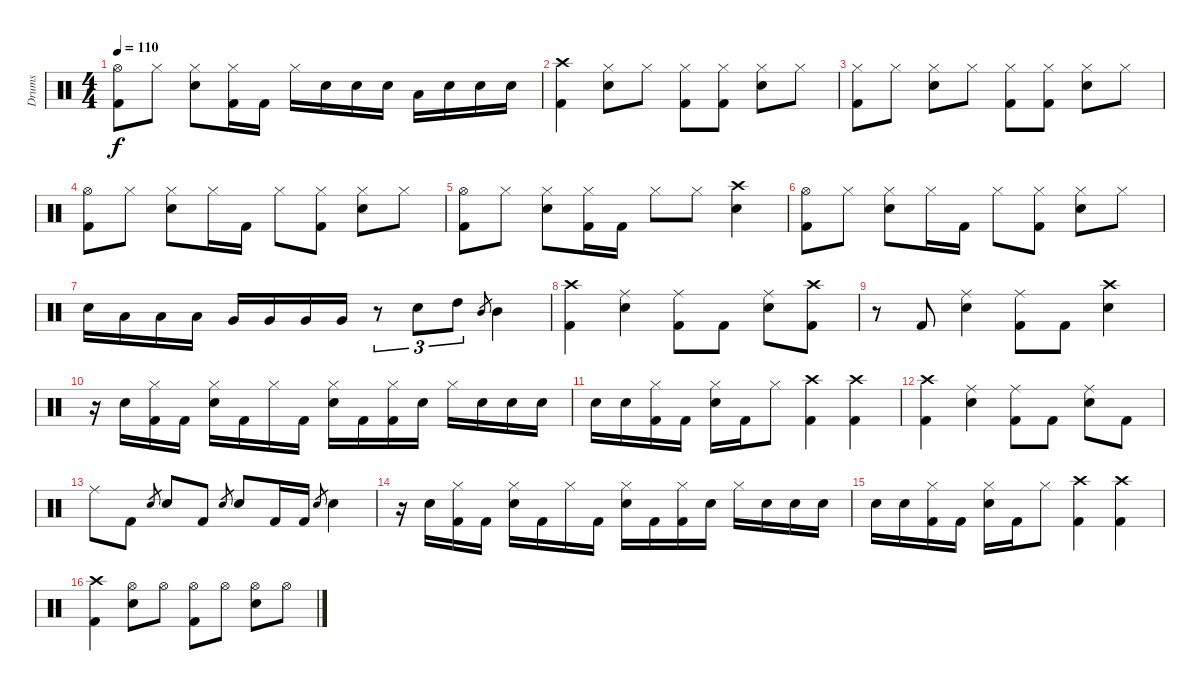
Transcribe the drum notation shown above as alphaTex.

\track ("Drums" "Drums") {instrument percussion}
\staff {score}
\articulation defaults
\ts (4 4)
\tempo 110
\clef neutral
\ks c
("Hi-Hat (open)" "Kick (hit) 2").8{dy f} "Hi-Hat (closed)".8 ("Hi-Hat (closed)" "Electric Snare (hit)").8 ("Hi-Hat (closed)" "Kick (hit) 2").16 "Kick (hit) 2".16 "Hi-Hat (closed)".16 "Electric Snare (hit)".16 "Electric Snare (hit)".16 "Electric Snare (hit)".16 "Low Tom (hit)".16 "Electric Snare (hit)".16 "Electric Snare (hit)".16 "Electric Snare (hit)".16 |
("Crash high (hit)" "Kick (hit) 2").4 ("Hi-Hat (closed)" "Electric Snare (hit)").8 "Hi-Hat (closed)".8 ("Hi-Hat (closed)" "Kick (hit) 2").8 ("Hi-Hat (closed)" "Kick (hit) 2").8 ("Hi-Hat (closed)" "Electric Snare (hit)").8 "Hi-Hat (closed)".8 |
("Hi-Hat (closed)" "Kick (hit) 2").8 "Hi-Hat (closed)".8 ("Hi-Hat (closed)" "Electric Snare (hit)").8 "Hi-Hat (closed)".8 ("Hi-Hat (closed)" "Kick (hit) 2").8 ("Hi-Hat (closed)" "Kick (hit) 2").8 ("Hi-Hat (closed)" "Electric Snare (hit)").8 "Hi-Hat (closed)".8 |
("Hi-Hat (open)" "Kick (hit) 2").8 "Hi-Hat (closed)".8 ("Hi-Hat (closed)" "Electric Snare (hit)").8 "Hi-Hat (closed)".16 "Kick (hit) 2".16 "Hi-Hat (closed)".8 ("Hi-Hat (closed)" "Kick (hit) 2").8 ("Hi-Hat (closed)" "Electric Snare (hit)").8 "Hi-Hat (closed)".8 |
("Hi-Hat (open)" "Kick (hit) 2").8 "Hi-Hat (closed)".8 ("Hi-Hat (closed)" "Electric Snare (hit)").8 ("Hi-Hat (closed)" "Kick (hit) 2").16 "Kick (hit) 2".16 "Hi-Hat (closed)".8 "Hi-Hat (closed)".8 ("Crash high (hit)" "Electric Snare (hit)").4 |
("Hi-Hat (open)" "Kick (hit) 2").8 "Hi-Hat (closed)".8 ("Hi-Hat (closed)" "Electric Snare (hit)").8 "Hi-Hat (closed)".16 "Kick (hit) 2".16 "Hi-Hat (closed)".8 ("Hi-Hat (closed)" "Kick (hit) 2").8 ("Hi-Hat (closed)" "Electric Snare (hit)").8 "Hi-Hat (closed)".8 |
"Electric Snare (hit)".16 "Low Tom (hit)".16 "Low Tom (hit)".16 "Low Tom (hit)".16 "Very Low Tom (hit)".16 "Very Low Tom (hit)".16 "Very Low Tom (hit)".16 "Very Low Tom (hit)".16 r.8{tu (3 2)} "Electric Snare (hit)".8{tu (3 2)} "High Tom (hit)".8{tu (3 2)} "Mid Tom (hit)".8{gr} "Mid Tom (hit)".4 |
("Crash high (hit)" "Kick (hit) 2").4 ("Ride (middle)" "Electric Snare (hit)").4 ("Ride (middle)" "Kick (hit) 2").8 "Kick (hit) 2".8 ("Ride (middle)" "Electric Snare (hit)").8 ("Crash high (hit)" "Kick (hit) 2").8 |
r.8 "Kick (hit) 2".8 ("Ride (middle)" "Electric Snare (hit)").4 ("Ride (middle)" "Kick (hit) 2").8 "Kick (hit) 2".8 ("Crash high (hit)" "Electric Snare (hit)").4 |
r.16 "Electric Snare (hit)".16 ("Hi-Hat (closed)" "Kick (hit) 2").16 "Kick (hit) 2".16 ("Hi-Hat (closed)" "Electric Snare (hit)").16 "Kick (hit) 2".16 "Hi-Hat (closed)".16 "Kick (hit) 2".16 ("Hi-Hat (closed)" "Electric Snare (hit)").16 "Kick (hit) 2".16 ("Hi-Hat (closed)" "Kick (hit) 2").16 "Electric Snare (hit)".16 "Hi-Hat (closed)".16 "Electric Snare (hit)".16 "Electric Snare (hit)".16 "Electric Snare (hit)".16 |
"Electric Snare (hit)".16 "Electric Snare (hit)".16 ("Hi-Hat (closed)" "Kick (hit) 2").16 "Kick (hit) 2".16 ("Hi-Hat (closed)" "Electric Snare (hit)").16 "Kick (hit) 2".16 "Hi-Hat (closed)".8 ("Crash high (hit)" "Kick (hit) 2").4 ("Crash high (hit)" "Kick (hit) 2").4 |
("Crash high (hit)" "Kick (hit) 2").4 ("Ride (middle)" "Electric Snare (hit)").4 ("Ride (middle)" "Kick (hit) 2").8 "Kick (hit) 2".8 ("Ride (middle)" "Electric Snare (hit)").8 "Kick (hit) 2".8 |
"Ride (middle)".8 "Kick (hit) 2".8 "Electric Snare (hit)".8{gr} "Electric Snare (hit)".8 "Kick (hit) 2".8 "Electric Snare (hit)".8{gr} "Electric Snare (hit)".8 "Kick (hit) 2".16 "Kick (hit) 2".16 "Electric Snare (hit)".8{gr} "Electric Snare (hit)".4 |
r.16 "Electric Snare (hit)".16 ("Hi-Hat (closed)" "Kick (hit) 2").16 "Kick (hit) 2".16 ("Hi-Hat (closed)" "Electric Snare (hit)").16 "Kick (hit) 2".16 "Hi-Hat (closed)".16 "Kick (hit) 2".16 ("Hi-Hat (closed)" "Electric Snare (hit)").16 "Kick (hit) 2".16 ("Hi-Hat (closed)" "Kick (hit) 2").16 "Electric Snare (hit)".16 "Hi-Hat (closed)".16 "Electric Snare (hit)".16 "Electric Snare (hit)".16 "Electric Snare (hit)".16 |
"Electric Snare (hit)".16 "Electric Snare (hit)".16 ("Hi-Hat (closed)" "Kick (hit) 2").16 "Kick (hit) 2".16 ("Hi-Hat (closed)" "Electric Snare (hit)").16 "Kick (hit) 2".16 "Hi-Hat (closed)".8 ("Crash high (hit)" "Kick (hit) 2").4 ("Crash high (hit)" "Kick (hit) 2").4 |
("Crash high (hit)" "Kick (hit) 2").4 ("Hi-Hat (open)" "Electric Snare (hit)").8 "Hi-Hat (open)".8 ("Hi-Hat (open)" "Kick (hit) 2").8 "Hi-Hat (open)".8 ("Hi-Hat (open)" "Electric Snare (hit)").8 "Hi-Hat (open)".8
